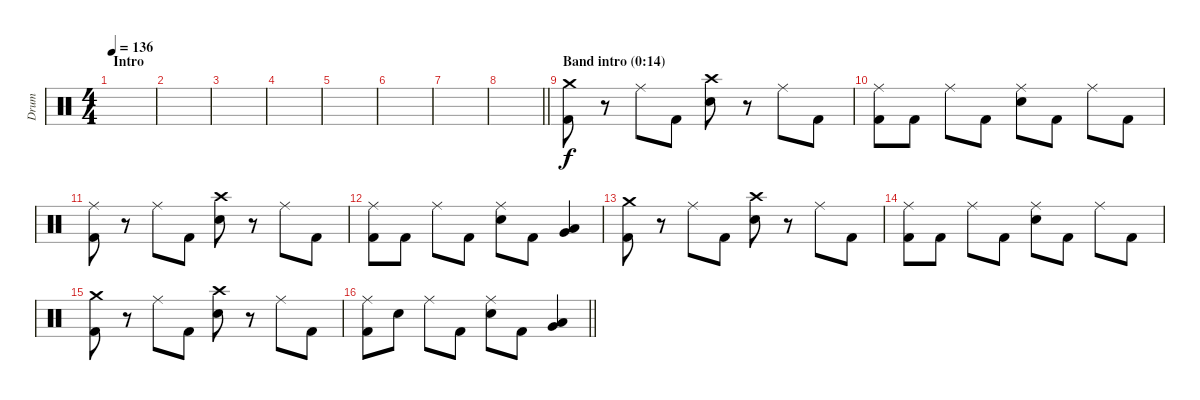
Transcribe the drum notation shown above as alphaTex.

\track ("Drum" "Drum") {instrument percussion}
\staff {score}
\articulation defaults
\ts (4 4)
\section ("" "Intro")
\tempo 136
\clef neutral
\ks c
|
|
|
|
|
|
|
\barLineRight lightlight
|
\section ("" "Band intro (0:14)")
("Crash medium (hit)" "Kick (hit) 2").8 r.8 "Ride (middle)".8 "Kick (hit) 2".8 ("Crash high (hit)" "Snare (hit) 2").8 r.8 "Ride (middle)".8 "Kick (hit) 2".8 |
("Ride (middle)" "Kick (hit) 2").8 "Kick (hit) 2".8 "Ride (middle)".8 "Kick (hit) 2".8 ("Ride (middle)" "Snare (hit) 2").8 "Kick (hit) 2".8 "Ride (middle)".8 "Kick (hit) 2".8 |
("Ride (middle)" "Kick (hit) 2").8 r.8 "Ride (middle)".8 "Kick (hit) 2".8 ("Crash high (hit)" "Snare (hit) 2").8 r.8 "Ride (middle)".8 "Kick (hit) 2".8 |
("Ride (middle)" "Kick (hit) 2").8 "Kick (hit) 2".8 "Ride (middle)".8 "Kick (hit) 2".8 ("Ride (middle)" "Snare (hit) 2").8 "Kick (hit) 2".8 ("Very Low Tom (hit)" "Low Floor Tom (hit)").4 |
("Crash medium (hit)" "Kick (hit) 2").8 r.8 "Ride (middle)".8 "Kick (hit) 2".8 ("Crash high (hit)" "Snare (hit) 2").8 r.8 "Ride (middle)".8 "Kick (hit) 2".8 |
("Ride (middle)" "Kick (hit) 2").8 "Kick (hit) 2".8 "Ride (middle)".8 "Kick (hit) 2".8 ("Ride (middle)" "Snare (hit) 2").8 "Kick (hit) 2".8 "Ride (middle)".8 "Kick (hit) 2".8 |
("Crash medium (hit)" "Kick (hit) 2").8 r.8 "Ride (middle)".8 "Kick (hit) 2".8 ("Crash high (hit)" "Snare (hit) 2").8 r.8 "Ride (middle)".8 "Kick (hit) 2".8 |
\barLineRight lightlight
("Ride (middle)" "Kick (hit) 2").8 "Snare (hit) 2".8 "Ride (middle)".8 "Kick (hit) 2".8 ("Ride (middle)" "Snare (hit) 2").8 "Kick (hit) 2".8 ("Very Low Tom (hit)" "Low Floor Tom (hit)").4
